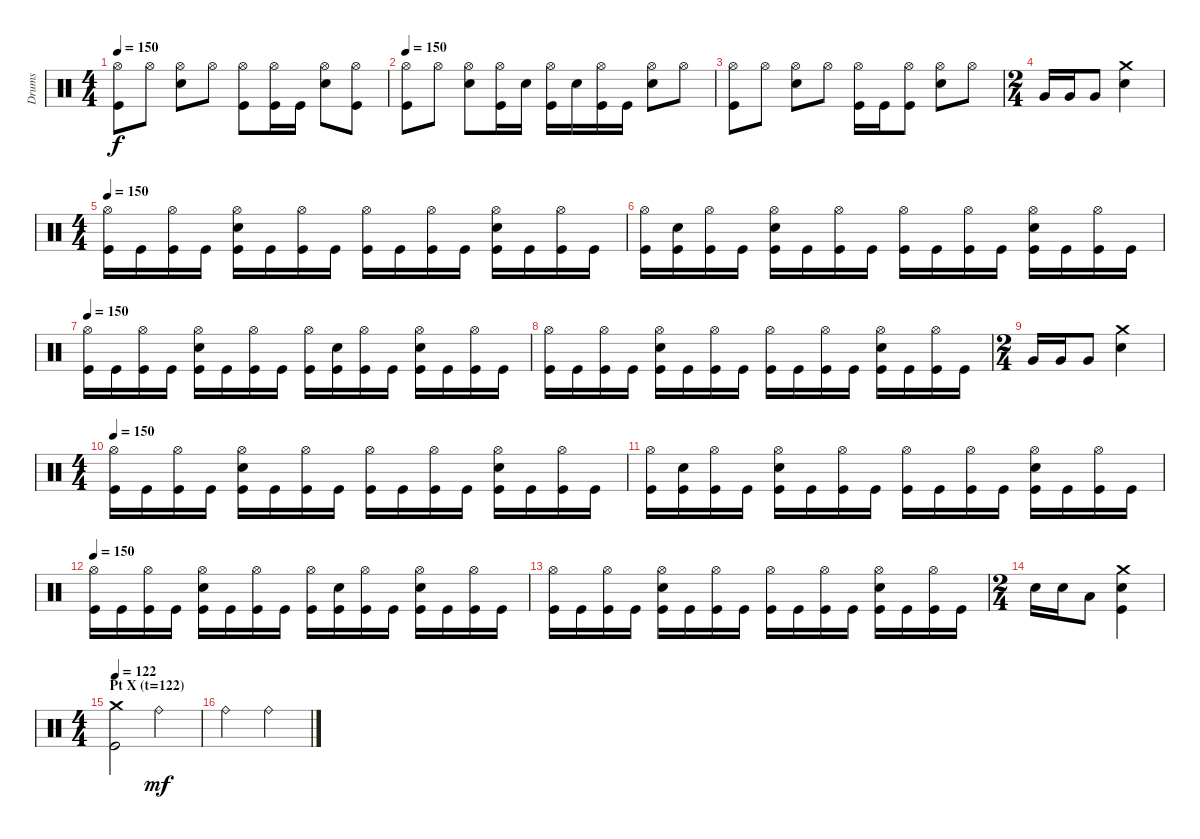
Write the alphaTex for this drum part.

\track ("Drums" "Drums") {instrument percussion}
\staff {score}
\articulation defaults
\ts (4 4)
\tempo 150
\clef neutral
\ks c
("Kick (hit)" "Hi-Hat (open)").8{dy f} "Hi-Hat (open)".8 ("Electric Snare (hit)" "Hi-Hat (open)").8 "Hi-Hat (open)".8 ("Kick (hit)" "Hi-Hat (open)").8 ("Kick (hit)" "Hi-Hat (open)").16 "Kick (hit)".16 ("Electric Snare (hit)" "Hi-Hat (open)").8 ("Kick (hit)" "Hi-Hat (open)").8 |
\tempo 150
("Kick (hit)" "Hi-Hat (open)").8 "Hi-Hat (open)".8 ("Electric Snare (hit)" "Hi-Hat (open)").8 ("Kick (hit)" "Hi-Hat (open)").16 "Electric Snare (hit)".16 ("Kick (hit)" "Hi-Hat (open)").16 "Electric Snare (hit)".16 ("Kick (hit)" "Hi-Hat (open)").16 "Kick (hit)".16 ("Electric Snare (hit)" "Hi-Hat (open)").8 "Hi-Hat (open)".8 |
("Kick (hit)" "Hi-Hat (open)").8 "Hi-Hat (open)".8 ("Electric Snare (hit)" "Hi-Hat (open)").8 "Hi-Hat (open)".8 ("Kick (hit)" "Hi-Hat (open)").16 "Kick (hit)".16 ("Kick (hit)" "Hi-Hat (open)").8 ("Electric Snare (hit)" "Hi-Hat (open)").8 "Hi-Hat (open)".8 |
\ts (2 4)
"Very Low Tom (hit)".16 "Very Low Tom (hit)".16 "Very Low Tom (hit)".8 ("Electric Snare (hit)" "Crash medium (hit)").4 |
\ts (4 4)
\tempo 150
("Kick (hit)" "Hi-Hat (open)").16 "Kick (hit)".16 ("Kick (hit)" "Hi-Hat (open)").16 "Kick (hit)".16 ("Kick (hit)" "Electric Snare (hit)" "Hi-Hat (open)").16 "Kick (hit)".16 ("Kick (hit)" "Hi-Hat (open)").16 "Kick (hit)".16 ("Kick (hit)" "Hi-Hat (open)").16 "Kick (hit)".16 ("Kick (hit)" "Hi-Hat (open)").16 "Kick (hit)".16 ("Kick (hit)" "Electric Snare (hit)" "Hi-Hat (open)").16 "Kick (hit)".16 ("Kick (hit)" "Hi-Hat (open)").16 "Kick (hit)".16 |
("Kick (hit)" "Hi-Hat (open)").16 ("Kick (hit)" "Electric Snare (hit)").16 ("Kick (hit)" "Hi-Hat (open)").16 "Kick (hit)".16 ("Kick (hit)" "Electric Snare (hit)" "Hi-Hat (open)").16 "Kick (hit)".16 ("Kick (hit)" "Hi-Hat (open)").16 "Kick (hit)".16 ("Kick (hit)" "Hi-Hat (open)").16 "Kick (hit)".16 ("Kick (hit)" "Hi-Hat (open)").16 "Kick (hit)".16 ("Kick (hit)" "Electric Snare (hit)" "Hi-Hat (open)").16 "Kick (hit)".16 ("Kick (hit)" "Hi-Hat (open)").16 "Kick (hit)".16 |
\tempo 150
("Kick (hit)" "Hi-Hat (open)").16 "Kick (hit)".16 ("Kick (hit)" "Hi-Hat (open)").16 "Kick (hit)".16 ("Kick (hit)" "Electric Snare (hit)" "Hi-Hat (open)").16 "Kick (hit)".16 ("Kick (hit)" "Hi-Hat (open)").16 "Kick (hit)".16 ("Kick (hit)" "Hi-Hat (open)").16 ("Kick (hit)" "Electric Snare (hit)").16 ("Kick (hit)" "Hi-Hat (open)").16 "Kick (hit)".16 ("Kick (hit)" "Electric Snare (hit)" "Hi-Hat (open)").16 "Kick (hit)".16 ("Kick (hit)" "Hi-Hat (open)").16 "Kick (hit)".16 |
("Kick (hit)" "Hi-Hat (open)").16 "Kick (hit)".16 ("Kick (hit)" "Hi-Hat (open)").16 "Kick (hit)".16 ("Kick (hit)" "Electric Snare (hit)" "Hi-Hat (open)").16 "Kick (hit)".16 ("Kick (hit)" "Hi-Hat (open)").16 "Kick (hit)".16 ("Kick (hit)" "Hi-Hat (open)").16 "Kick (hit)".16 ("Kick (hit)" "Hi-Hat (open)").16 "Kick (hit)".16 ("Kick (hit)" "Electric Snare (hit)" "Hi-Hat (open)").16 "Kick (hit)".16 ("Kick (hit)" "Hi-Hat (open)").16 "Kick (hit)".16 |
\ts (2 4)
"Very Low Tom (hit)".16 "Very Low Tom (hit)".16 "Very Low Tom (hit)".8 ("Electric Snare (hit)" "Crash medium (hit)").4 |
\ts (4 4)
\tempo 150
("Kick (hit)" "Hi-Hat (open)").16 "Kick (hit)".16 ("Kick (hit)" "Hi-Hat (open)").16 "Kick (hit)".16 ("Kick (hit)" "Electric Snare (hit)" "Hi-Hat (open)").16 "Kick (hit)".16 ("Kick (hit)" "Hi-Hat (open)").16 "Kick (hit)".16 ("Kick (hit)" "Hi-Hat (open)").16 "Kick (hit)".16 ("Kick (hit)" "Hi-Hat (open)").16 "Kick (hit)".16 ("Kick (hit)" "Electric Snare (hit)" "Hi-Hat (open)").16 "Kick (hit)".16 ("Kick (hit)" "Hi-Hat (open)").16 "Kick (hit)".16 |
("Kick (hit)" "Hi-Hat (open)").16 ("Kick (hit)" "Electric Snare (hit)").16 ("Kick (hit)" "Hi-Hat (open)").16 "Kick (hit)".16 ("Kick (hit)" "Electric Snare (hit)" "Hi-Hat (open)").16 "Kick (hit)".16 ("Kick (hit)" "Hi-Hat (open)").16 "Kick (hit)".16 ("Kick (hit)" "Hi-Hat (open)").16 "Kick (hit)".16 ("Kick (hit)" "Hi-Hat (open)").16 "Kick (hit)".16 ("Kick (hit)" "Electric Snare (hit)" "Hi-Hat (open)").16 "Kick (hit)".16 ("Kick (hit)" "Hi-Hat (open)").16 "Kick (hit)".16 |
\tempo 150
("Kick (hit)" "Hi-Hat (open)").16 "Kick (hit)".16 ("Kick (hit)" "Hi-Hat (open)").16 "Kick (hit)".16 ("Kick (hit)" "Electric Snare (hit)" "Hi-Hat (open)").16 "Kick (hit)".16 ("Kick (hit)" "Hi-Hat (open)").16 "Kick (hit)".16 ("Kick (hit)" "Hi-Hat (open)").16 ("Kick (hit)" "Electric Snare (hit)").16 ("Kick (hit)" "Hi-Hat (open)").16 "Kick (hit)".16 ("Kick (hit)" "Electric Snare (hit)" "Hi-Hat (open)").16 "Kick (hit)".16 ("Kick (hit)" "Hi-Hat (open)").16 "Kick (hit)".16 |
("Kick (hit)" "Hi-Hat (open)").16 "Kick (hit)".16 ("Kick (hit)" "Hi-Hat (open)").16 "Kick (hit)".16 ("Kick (hit)" "Electric Snare (hit)" "Hi-Hat (open)").16 "Kick (hit)".16 ("Kick (hit)" "Hi-Hat (open)").16 "Kick (hit)".16 ("Kick (hit)" "Hi-Hat (open)").16 "Kick (hit)".16 ("Kick (hit)" "Hi-Hat (open)").16 "Kick (hit)".16 ("Kick (hit)" "Electric Snare (hit)" "Hi-Hat (open)").16 "Kick (hit)".16 ("Kick (hit)" "Hi-Hat (open)").16 "Kick (hit)".16 |
\ts (2 4)
"Electric Snare (hit)".16 "Electric Snare (hit)".16 "Low Tom (hit)".8 ("Kick (hit)" "Electric Snare (hit)" "Crash medium (hit)").4 |
\ts (4 4)
\section ("" "Pt X (t=122)")
\tempo 122
("Kick (hit)" "Crash medium (hit)").2 "Ride (bell)".2{dy mf} |
"Ride (bell)".2 "Ride (bell)".2
